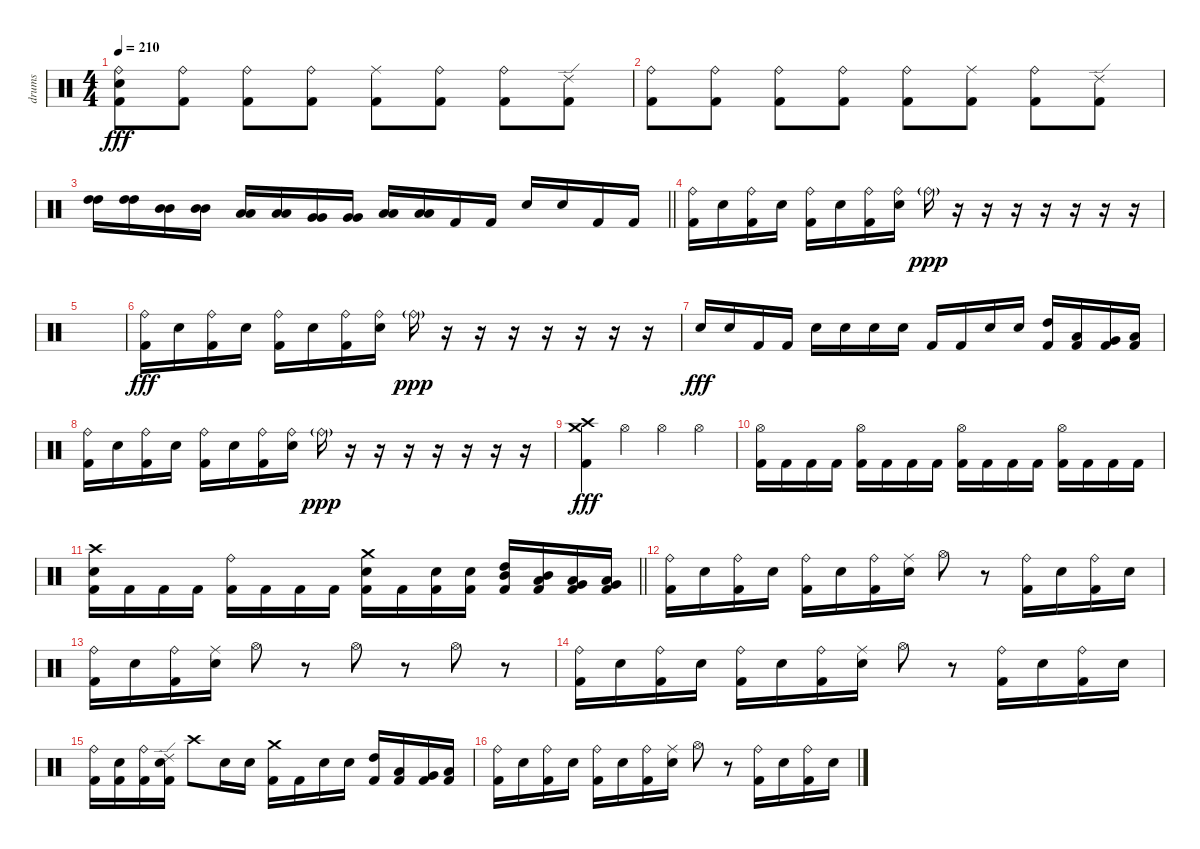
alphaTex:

\track ("drums" "drums") {instrument percussion}
\staff {score}
\articulation defaults
\ts (4 4)
\tempo 210
\clef neutral
\ks c
("Ride (bell)" "Electric Snare (hit)" "Kick (hit) 2").8{dy fff} ("Ride (bell)" "Kick (hit) 2").8 ("Ride (bell)" "Kick (hit) 2").8 ("Ride (bell)" "Kick (hit) 2").8 ("Ride (middle)" "Kick (hit) 2").8 ("Ride (bell)" "Kick (hit) 2").8 ("Ride (bell)" "Kick (hit) 2").8 ("Ride (edge) 2" "Kick (hit) 2").8 |
("Ride (bell)" "Kick (hit) 2").8 ("Ride (bell)" "Kick (hit) 2").8 ("Ride (bell)" "Kick (hit) 2").8 ("Ride (bell)" "Kick (hit) 2").8 ("Ride (bell)" "Kick (hit) 2").8 ("Ride (middle)" "Kick (hit) 2").8 ("Ride (bell)" "Kick (hit) 2").8 ("Ride (edge) 2" "Kick (hit) 2").8 |
\barLineRight lightlight
("High Tom (hit)" "High Tom (hit)").16 ("High Tom (hit)" "High Tom (hit)").16 ("Mid Tom (hit)" "Mid Tom (hit)").16 ("Mid Tom (hit)" "Mid Tom (hit)").16 ("Low Tom (hit)" "Low Tom (hit)").16 ("Low Tom (hit)" "Low Tom (hit)").16 ("Very Low Tom (hit)" "Very Low Tom (hit)").16 ("Very Low Tom (hit)" "Very Low Tom (hit)").16 ("Low Floor Tom (hit)" "Low Floor Tom (hit)").16 ("Low Floor Tom (hit)" "Low Floor Tom (hit)").16 "Kick (hit) 2".16 "Kick (hit) 2".16 "Electric Snare (hit)".16 "Electric Snare (hit)".16 "Kick (hit) 2".16 "Kick (hit) 2".16 |
\section ("" "")
("Ride (bell)" "Kick (hit) 2").16 "Electric Snare (hit)".16 ("Ride (bell)" "Kick (hit) 2").16 "Electric Snare (hit)".16 ("Ride (bell)" "Kick (hit) 2").16 "Electric Snare (hit)".16 ("Ride (bell)" "Kick (hit) 2").16 ("Ride (bell)" "Electric Snare (hit)").16 "Ride (bell)"{g}.16{dy ppp} r.16 r.16 r.16 r.16 r.16 r.16 r.16 |
|
("Ride (bell)" "Kick (hit) 2").16{dy fff} "Electric Snare (hit)".16 ("Ride (bell)" "Kick (hit) 2").16 "Electric Snare (hit)".16 ("Ride (bell)" "Kick (hit) 2").16 "Electric Snare (hit)".16 ("Ride (bell)" "Kick (hit) 2").16 ("Ride (bell)" "Electric Snare (hit)").16 "Ride (bell)"{g}.16{dy ppp} r.16 r.16 r.16 r.16 r.16 r.16 r.16 |
"Electric Snare (hit)".16{dy fff} "Electric Snare (hit)".16 "Kick (hit) 2".16 "Kick (hit) 2".16 "Electric Snare (hit)".16 "Electric Snare (hit)".16 "Electric Snare (hit)".16 "Electric Snare (hit)".16 "Kick (hit) 2".16 "Kick (hit) 2".16 "Electric Snare (hit)".16 "Electric Snare (hit)".16 ("High Tom (hit)" "Kick (hit) 2").16 ("Low Tom (hit)" "Kick (hit) 2").16 ("Very Low Tom (hit)" "Kick (hit) 2").16 ("Low Floor Tom (hit)" "Kick (hit) 2").16 |
("Ride (bell)" "Kick (hit) 2").16 "Electric Snare (hit)".16 ("Ride (bell)" "Kick (hit) 2").16 "Electric Snare (hit)".16 ("Ride (bell)" "Kick (hit) 2").16 "Electric Snare (hit)".16 ("Ride (bell)" "Kick (hit) 2").16 ("Ride (bell)" "Electric Snare (hit)").16 "Ride (bell)"{g}.16{dy ppp} r.16 r.16 r.16 r.16 r.16 r.16 r.16 |
("Crash high (hit)" "Crash medium (hit)" "Kick (hit) 2").4{dy fff} "Hi-Hat (open)".4 "Hi-Hat (open)".4 "Hi-Hat (open)".4 |
("Hi-Hat (open)" "Kick (hit) 2").16 "Kick (hit) 2".16 "Kick (hit) 2".16 "Kick (hit) 2".16 ("Hi-Hat (open)" "Kick (hit) 2").16 "Kick (hit) 2".16 "Kick (hit) 2".16 "Kick (hit) 2".16 ("Hi-Hat (open)" "Kick (hit) 2").16 "Kick (hit) 2".16 "Kick (hit) 2".16 "Kick (hit) 2".16 ("Hi-Hat (open)" "Kick (hit) 2").16 "Kick (hit) 2".16 "Kick (hit) 2".16 "Kick (hit) 2".16 |
\barLineRight lightlight
("Crash high (hit)" "Electric Snare (hit)" "Kick (hit) 2").16 "Kick (hit) 2".16 "Kick (hit) 2".16 "Kick (hit) 2".16 ("Ride (bell)" "Kick (hit) 2").16 "Kick (hit) 2".16 "Kick (hit) 2".16 "Kick (hit) 2".16 ("Crash medium (hit)" "Electric Snare (hit)" "Kick (hit) 2").16 "Kick (hit) 2".16 ("Electric Snare (hit)" "Kick (hit) 2").16 ("Electric Snare (hit)" "Kick (hit) 2").16 ("High Tom (hit)" "Mid Tom (hit)" "Kick (hit) 2").16 ("Mid Tom (hit)" "Low Tom (hit)" "Kick (hit) 2").16 ("Low Tom (hit)" "Very Low Tom (hit)" "Kick (hit) 2").16 ("Very Low Tom (hit)" "Low Floor Tom (hit)" "Kick (hit) 2").16 |
\section ("" "")
("Ride (bell)" "Kick (hit) 2").16 "Electric Snare (hit)".16 ("Ride (bell)" "Kick (hit) 2").16 "Electric Snare (hit)".16 ("Ride (bell)" "Kick (hit) 2").16 "Electric Snare (hit)".16 ("Ride (bell)" "Kick (hit) 2").16 ("Ride (middle)" "Electric Snare (hit)").16 "Hi-Hat (open)".8 r.8 ("Ride (bell)" "Kick (hit) 2").16 "Electric Snare (hit)".16 ("Ride (bell)" "Kick (hit) 2").16 "Electric Snare (hit)".16 |
("Ride (bell)" "Kick (hit) 2").16 "Electric Snare (hit)".16 ("Ride (bell)" "Kick (hit) 2").16 ("Ride (middle)" "Electric Snare (hit)").16 "Hi-Hat (open)".8 r.8 "Hi-Hat (open)".8 r.8 "Hi-Hat (open)".8 r.8 |
("Ride (bell)" "Kick (hit) 2").16 "Electric Snare (hit)".16 ("Ride (bell)" "Kick (hit) 2").16 "Electric Snare (hit)".16 ("Ride (bell)" "Kick (hit) 2").16 "Electric Snare (hit)".16 ("Ride (bell)" "Kick (hit) 2").16 ("Ride (middle)" "Electric Snare (hit)").16 "Hi-Hat (open)".8 r.8 ("Ride (bell)" "Kick (hit) 2").16 "Electric Snare (hit)".16 ("Ride (bell)" "Kick (hit) 2").16 "Electric Snare (hit)".16 |
("Ride (bell)" "Kick (hit) 2").16 ("Electric Snare (hit)" "Kick (hit) 2").16 ("Ride (bell)" "Kick (hit) 2").16 ("Ride (edge) 2" "Electric Snare (hit)" "Kick (hit) 2").16 "Crash high (hit)".8 "Electric Snare (hit)".16 "Electric Snare (hit)".16 ("Crash medium (hit)" "Kick (hit) 2").16 "Kick (hit) 2".16 "Electric Snare (hit)".16 "Electric Snare (hit)".16 ("High Tom (hit)" "Kick (hit) 2").16 ("Low Tom (hit)" "Kick (hit) 2").16 ("Very Low Tom (hit)" "Kick (hit) 2").16 ("Low Floor Tom (hit)" "Kick (hit) 2").16 |
("Ride (bell)" "Kick (hit) 2").16 "Electric Snare (hit)".16 ("Ride (bell)" "Kick (hit) 2").16 "Electric Snare (hit)".16 ("Ride (bell)" "Kick (hit) 2").16 "Electric Snare (hit)".16 ("Ride (bell)" "Kick (hit) 2").16 ("Ride (middle)" "Electric Snare (hit)").16 "Hi-Hat (open)".8 r.8 ("Ride (bell)" "Kick (hit) 2").16 "Electric Snare (hit)".16 ("Ride (bell)" "Kick (hit) 2").16 "Electric Snare (hit)".16
